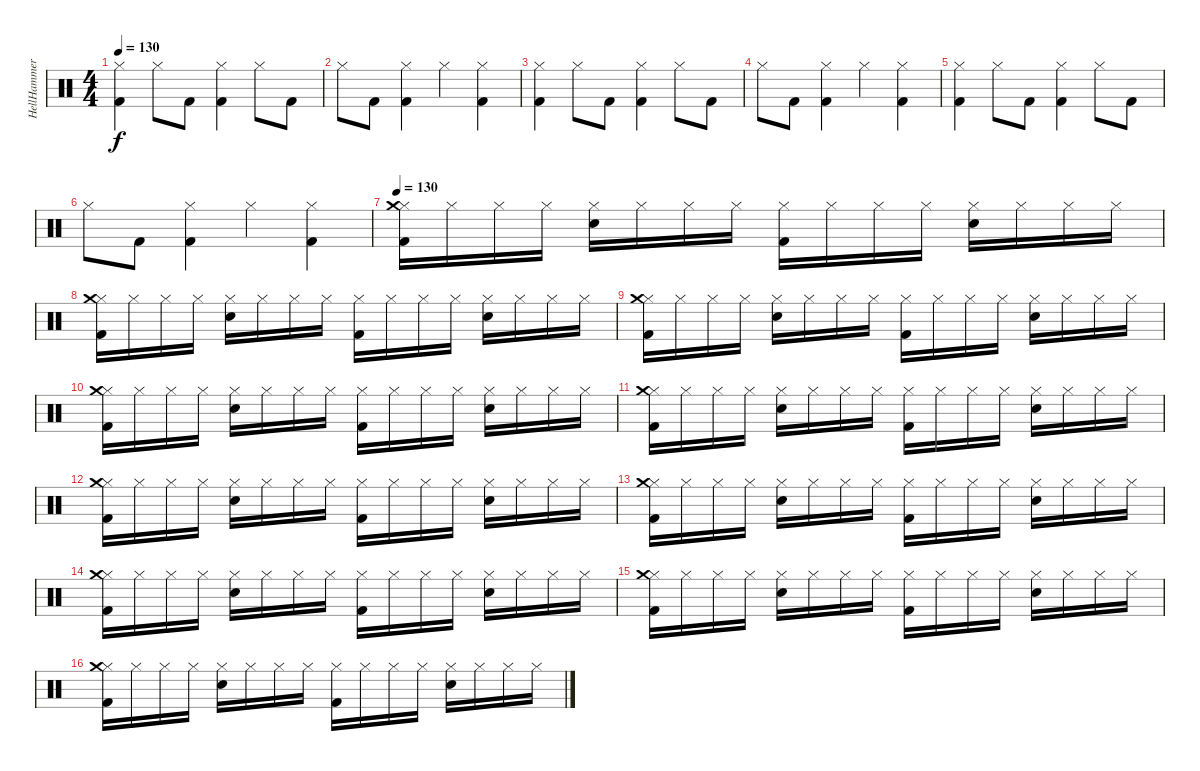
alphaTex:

\track ("HellHammer - Drums" "HellHammer") {instrument percussion}
\staff {score}
\articulation defaults
\ts (4 4)
\tempo 130
\clef neutral
\ks c
("Hi-Hat (closed)" "Kick (hit) 2").4{dy f} "Hi-Hat (closed)".8 "Kick (hit) 2".8 ("Hi-Hat (closed)" "Kick (hit) 2").4 "Hi-Hat (closed)".8 "Kick (hit) 2".8 |
"Hi-Hat (closed)".8 "Kick (hit) 2".8 ("Hi-Hat (closed)" "Kick (hit) 2").4 "Hi-Hat (closed)".4 ("Hi-Hat (closed)" "Kick (hit) 2").4 |
("Hi-Hat (closed)" "Kick (hit) 2").4 "Hi-Hat (closed)".8 "Kick (hit) 2".8 ("Hi-Hat (closed)" "Kick (hit) 2").4 "Hi-Hat (closed)".8 "Kick (hit) 2".8 |
"Hi-Hat (closed)".8 "Kick (hit) 2".8 ("Hi-Hat (closed)" "Kick (hit) 2").4 "Hi-Hat (closed)".4 ("Hi-Hat (closed)" "Kick (hit) 2").4 |
("Hi-Hat (closed)" "Kick (hit) 2").4 "Hi-Hat (closed)".8 "Kick (hit) 2".8 ("Hi-Hat (closed)" "Kick (hit) 2").4 "Hi-Hat (closed)".8 "Kick (hit) 2".8 |
"Hi-Hat (closed)".8 "Kick (hit) 2".8 ("Hi-Hat (closed)" "Kick (hit) 2").4 "Hi-Hat (closed)".4 ("Hi-Hat (closed)" "Kick (hit) 2").4 |
\tempo 130
("Kick (hit) 2" "Hi-Hat (closed)" "Crash medium (hit)").16{volume 14} "Hi-Hat (closed)".16 "Hi-Hat (closed)".16 "Hi-Hat (closed)".16 ("Hi-Hat (closed)" "Snare (hit) 2").16 "Hi-Hat (closed)".16 "Hi-Hat (closed)".16 "Hi-Hat (closed)".16 ("Hi-Hat (closed)" "Kick (hit) 2").16 "Hi-Hat (closed)".16 "Hi-Hat (closed)".16 "Hi-Hat (closed)".16 ("Hi-Hat (closed)" "Snare (hit) 2").16 "Hi-Hat (closed)".16 "Hi-Hat (closed)".16 "Hi-Hat (closed)".16 |
("Kick (hit) 2" "Hi-Hat (closed)" "Crash medium (hit)").16 "Hi-Hat (closed)".16 "Hi-Hat (closed)".16 "Hi-Hat (closed)".16 ("Hi-Hat (closed)" "Snare (hit) 2").16 "Hi-Hat (closed)".16 "Hi-Hat (closed)".16 "Hi-Hat (closed)".16 ("Hi-Hat (closed)" "Kick (hit) 2").16 "Hi-Hat (closed)".16 "Hi-Hat (closed)".16 "Hi-Hat (closed)".16 ("Hi-Hat (closed)" "Snare (hit) 2").16 "Hi-Hat (closed)".16 "Hi-Hat (closed)".16 "Hi-Hat (closed)".16 |
("Kick (hit) 2" "Hi-Hat (closed)" "Crash medium (hit)").16 "Hi-Hat (closed)".16 "Hi-Hat (closed)".16 "Hi-Hat (closed)".16 ("Hi-Hat (closed)" "Snare (hit) 2").16 "Hi-Hat (closed)".16 "Hi-Hat (closed)".16 "Hi-Hat (closed)".16 ("Hi-Hat (closed)" "Kick (hit) 2").16 "Hi-Hat (closed)".16 "Hi-Hat (closed)".16 "Hi-Hat (closed)".16 ("Hi-Hat (closed)" "Snare (hit) 2").16 "Hi-Hat (closed)".16 "Hi-Hat (closed)".16 "Hi-Hat (closed)".16 |
("Kick (hit) 2" "Hi-Hat (closed)" "Crash medium (hit)").16 "Hi-Hat (closed)".16 "Hi-Hat (closed)".16 "Hi-Hat (closed)".16 ("Hi-Hat (closed)" "Snare (hit) 2").16 "Hi-Hat (closed)".16 "Hi-Hat (closed)".16 "Hi-Hat (closed)".16 ("Hi-Hat (closed)" "Kick (hit) 2").16 "Hi-Hat (closed)".16 "Hi-Hat (closed)".16 "Hi-Hat (closed)".16 ("Hi-Hat (closed)" "Snare (hit) 2").16 "Hi-Hat (closed)".16 "Hi-Hat (closed)".16 "Hi-Hat (closed)".16 |
("Kick (hit) 2" "Hi-Hat (closed)" "Crash medium (hit)").16 "Hi-Hat (closed)".16 "Hi-Hat (closed)".16 "Hi-Hat (closed)".16 ("Hi-Hat (closed)" "Snare (hit) 2").16 "Hi-Hat (closed)".16 "Hi-Hat (closed)".16 "Hi-Hat (closed)".16 ("Hi-Hat (closed)" "Kick (hit) 2").16 "Hi-Hat (closed)".16 "Hi-Hat (closed)".16 "Hi-Hat (closed)".16 ("Hi-Hat (closed)" "Snare (hit) 2").16 "Hi-Hat (closed)".16 "Hi-Hat (closed)".16 "Hi-Hat (closed)".16 |
("Kick (hit) 2" "Hi-Hat (closed)" "Crash medium (hit)").16 "Hi-Hat (closed)".16 "Hi-Hat (closed)".16 "Hi-Hat (closed)".16 ("Hi-Hat (closed)" "Snare (hit) 2").16 "Hi-Hat (closed)".16 "Hi-Hat (closed)".16 "Hi-Hat (closed)".16 ("Hi-Hat (closed)" "Kick (hit) 2").16 "Hi-Hat (closed)".16 "Hi-Hat (closed)".16 "Hi-Hat (closed)".16 ("Hi-Hat (closed)" "Snare (hit) 2").16 "Hi-Hat (closed)".16 "Hi-Hat (closed)".16 "Hi-Hat (closed)".16 |
("Kick (hit) 2" "Hi-Hat (closed)" "Crash medium (hit)").16 "Hi-Hat (closed)".16 "Hi-Hat (closed)".16 "Hi-Hat (closed)".16 ("Hi-Hat (closed)" "Snare (hit) 2").16 "Hi-Hat (closed)".16 "Hi-Hat (closed)".16 "Hi-Hat (closed)".16 ("Hi-Hat (closed)" "Kick (hit) 2").16 "Hi-Hat (closed)".16 "Hi-Hat (closed)".16 "Hi-Hat (closed)".16 ("Hi-Hat (closed)" "Snare (hit) 2").16 "Hi-Hat (closed)".16 "Hi-Hat (closed)".16 "Hi-Hat (closed)".16 |
("Kick (hit) 2" "Hi-Hat (closed)" "Crash medium (hit)").16 "Hi-Hat (closed)".16 "Hi-Hat (closed)".16 "Hi-Hat (closed)".16 ("Hi-Hat (closed)" "Snare (hit) 2").16 "Hi-Hat (closed)".16 "Hi-Hat (closed)".16 "Hi-Hat (closed)".16 ("Hi-Hat (closed)" "Kick (hit) 2").16 "Hi-Hat (closed)".16 "Hi-Hat (closed)".16 "Hi-Hat (closed)".16 ("Hi-Hat (closed)" "Snare (hit) 2").16 "Hi-Hat (closed)".16 "Hi-Hat (closed)".16 "Hi-Hat (closed)".16 |
("Kick (hit) 2" "Hi-Hat (closed)" "Crash medium (hit)").16 "Hi-Hat (closed)".16 "Hi-Hat (closed)".16 "Hi-Hat (closed)".16 ("Hi-Hat (closed)" "Snare (hit) 2").16 "Hi-Hat (closed)".16 "Hi-Hat (closed)".16 "Hi-Hat (closed)".16 ("Hi-Hat (closed)" "Kick (hit) 2").16 "Hi-Hat (closed)".16 "Hi-Hat (closed)".16 "Hi-Hat (closed)".16 ("Hi-Hat (closed)" "Snare (hit) 2").16 "Hi-Hat (closed)".16 "Hi-Hat (closed)".16 "Hi-Hat (closed)".16 |
("Kick (hit) 2" "Hi-Hat (closed)" "Crash medium (hit)").16 "Hi-Hat (closed)".16 "Hi-Hat (closed)".16 "Hi-Hat (closed)".16 ("Hi-Hat (closed)" "Snare (hit) 2").16 "Hi-Hat (closed)".16 "Hi-Hat (closed)".16 "Hi-Hat (closed)".16 ("Hi-Hat (closed)" "Kick (hit) 2").16 "Hi-Hat (closed)".16 "Hi-Hat (closed)".16 "Hi-Hat (closed)".16 ("Hi-Hat (closed)" "Snare (hit) 2").16 "Hi-Hat (closed)".16 "Hi-Hat (closed)".16 "Hi-Hat (closed)".16
